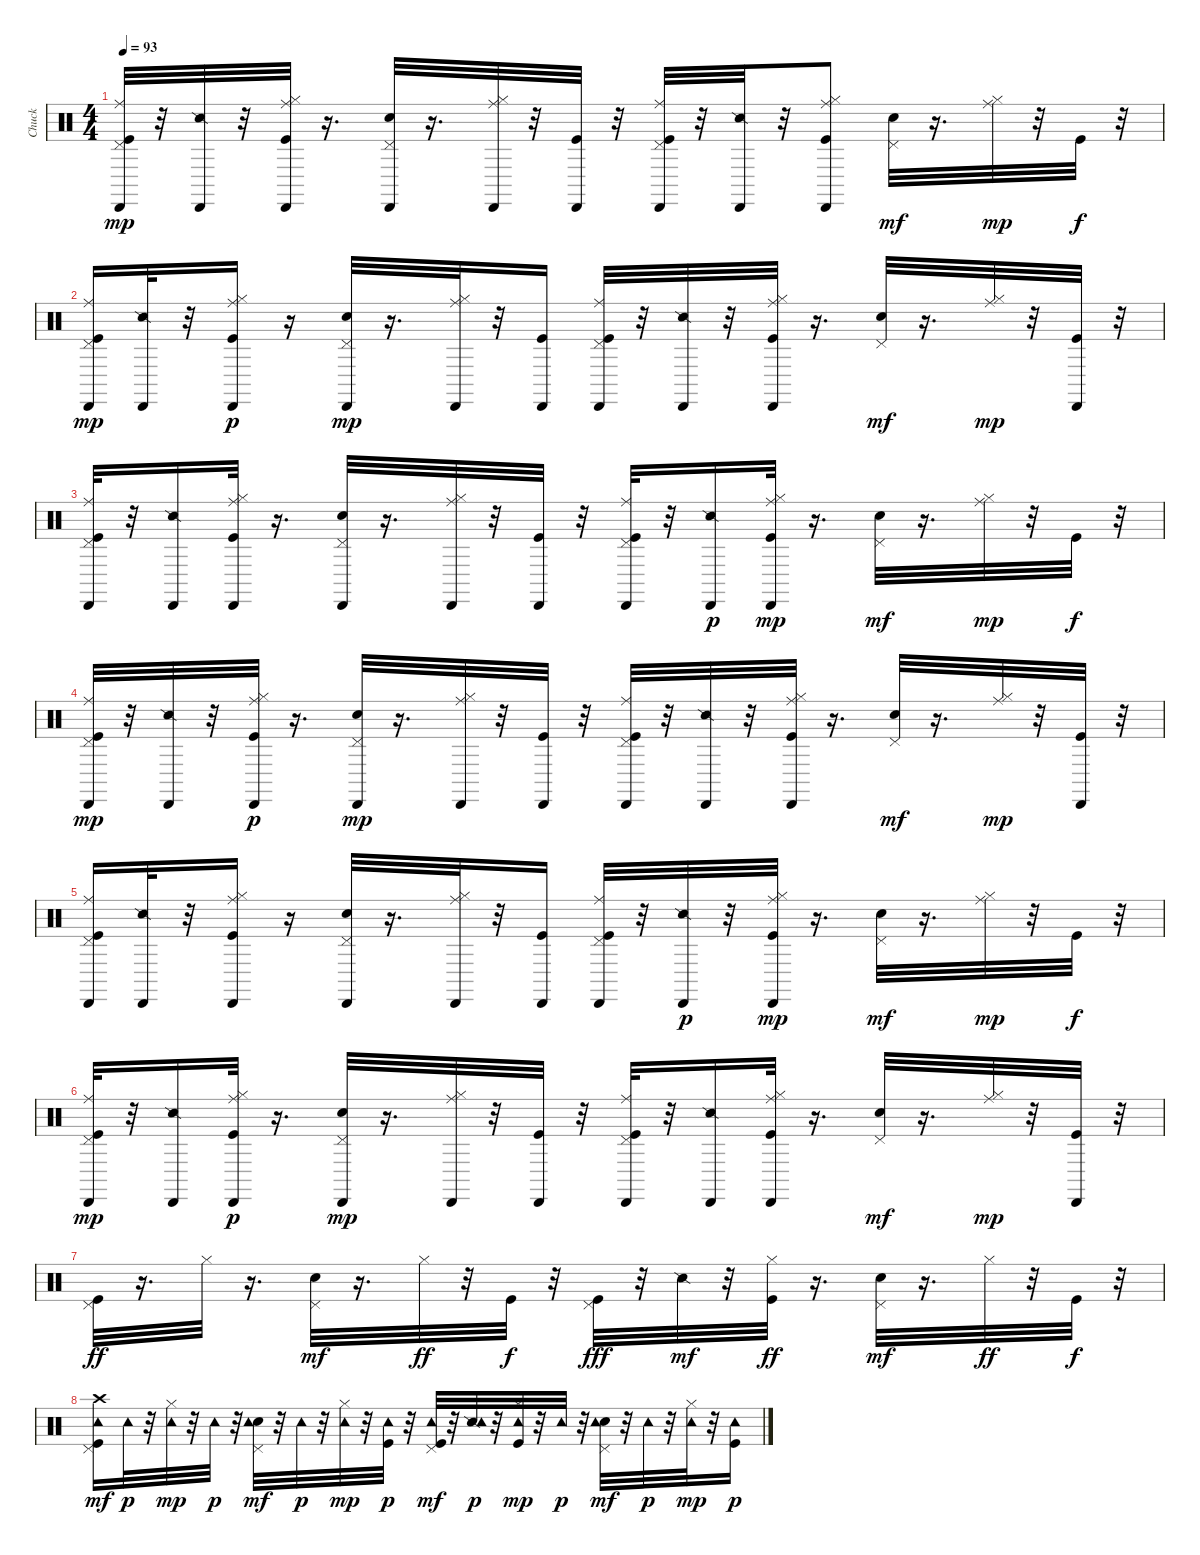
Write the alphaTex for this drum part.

\track ("Chuck" "Chuck") {instrument percussion}
\staff {score}
\articulation defaults
\ts (4 4)
\tempo 93
\clef neutral
\ks c
("Kick (hit)" "Pedal Hi-Hat (hit)" "Ride (middle)" "Cabasa (hit)").32{dy mp} r.32 ("Snare (side stick) 2" "Cabasa (hit)").32 r.32 ("Kick (hit)" "Hi-Hat (closed)" "Ride (middle)" "Cabasa (hit)").32 r.16{d} ("Electric Snare (hit)" "Pedal Hi-Hat (hit)" "Cabasa (hit)").32 r.16{d} ("Hi-Hat (closed)" "Ride (middle)" "Cabasa (hit)").32 r.32 ("Kick (hit)" "Cabasa (hit)").32 r.32 ("Kick (hit)" "Pedal Hi-Hat (hit)" "Ride (middle)" "Cabasa (hit)").32 r.32 ("Snare (side stick) 2" "Cabasa (hit)").32 r.32 ("Kick (hit)" "Hi-Hat (closed)" "Ride (middle)" "Cabasa (hit)").8 ("Electric Snare (hit)" "Pedal Hi-Hat (hit)").32{dy mf} r.16{d} ("Hi-Hat (closed)" "Ride (middle)").32{dy mp} r.32 "Kick (hit)".32{dy f} r.32 |
("Kick (hit)" "Pedal Hi-Hat (hit)" "Ride (middle)" "Cabasa (hit)").16{dy mp} ("Snare (side stick) 2" "Cabasa (hit)").32 r.32 ("Kick (hit)" "Hi-Hat (closed)" "Ride (middle)" "Cabasa (hit)").16{dy p} r.16 ("Electric Snare (hit)" "Pedal Hi-Hat (hit)" "Cabasa (hit)").32{dy mp} r.16{d} ("Hi-Hat (closed)" "Ride (middle)" "Cabasa (hit)").32 r.32 ("Kick (hit)" "Cabasa (hit)").16 ("Kick (hit)" "Pedal Hi-Hat (hit)" "Ride (middle)" "Cabasa (hit)").32 r.32 ("Snare (side stick) 2" "Cabasa (hit)").32 r.32 ("Kick (hit)" "Hi-Hat (closed)" "Ride (middle)" "Cabasa (hit)").32 r.16{d} ("Electric Snare (hit)" "Pedal Hi-Hat (hit)").32{dy mf} r.16{d} ("Hi-Hat (closed)" "Ride (middle)").32{dy mp} r.32 ("Kick (hit)" "Cabasa (hit)").32 r.32 |
("Kick (hit)" "Pedal Hi-Hat (hit)" "Ride (middle)" "Cabasa (hit)").32 r.32 ("Snare (side stick) 2" "Cabasa (hit)").16 ("Kick (hit)" "Hi-Hat (closed)" "Ride (middle)" "Cabasa (hit)").32 r.16{d} ("Electric Snare (hit)" "Pedal Hi-Hat (hit)" "Cabasa (hit)").32 r.16{d} ("Hi-Hat (closed)" "Ride (middle)" "Cabasa (hit)").32 r.32 ("Kick (hit)" "Cabasa (hit)").32 r.32 ("Kick (hit)" "Pedal Hi-Hat (hit)" "Ride (middle)" "Cabasa (hit)").32 r.32 ("Snare (side stick) 2" "Cabasa (hit)").16{dy p} ("Kick (hit)" "Hi-Hat (closed)" "Ride (middle)" "Cabasa (hit)").32{dy mp} r.16{d} ("Electric Snare (hit)" "Pedal Hi-Hat (hit)").32{dy mf} r.16{d} ("Hi-Hat (closed)" "Ride (middle)").32{dy mp} r.32 "Kick (hit)".32{dy f} r.32 |
("Kick (hit)" "Pedal Hi-Hat (hit)" "Ride (middle)" "Cabasa (hit)").32{dy mp} r.32 ("Snare (side stick) 2" "Cabasa (hit)").32 r.32 ("Kick (hit)" "Hi-Hat (closed)" "Ride (middle)" "Cabasa (hit)").32{dy p} r.16{d} ("Electric Snare (hit)" "Pedal Hi-Hat (hit)" "Cabasa (hit)").32{dy mp} r.16{d} ("Hi-Hat (closed)" "Ride (middle)" "Cabasa (hit)").32 r.32 ("Kick (hit)" "Cabasa (hit)").32 r.32 ("Kick (hit)" "Pedal Hi-Hat (hit)" "Ride (middle)" "Cabasa (hit)").32 r.32 ("Snare (side stick) 2" "Cabasa (hit)").32 r.32 ("Kick (hit)" "Hi-Hat (closed)" "Ride (middle)" "Cabasa (hit)").32 r.16{d} ("Electric Snare (hit)" "Pedal Hi-Hat (hit)").32{dy mf} r.16{d} ("Hi-Hat (closed)" "Ride (middle)").32{dy mp} r.32 ("Kick (hit)" "Cabasa (hit)").32 r.32 |
("Kick (hit)" "Pedal Hi-Hat (hit)" "Ride (middle)" "Cabasa (hit)").16 ("Snare (side stick) 2" "Cabasa (hit)").32 r.32 ("Kick (hit)" "Hi-Hat (closed)" "Ride (middle)" "Cabasa (hit)").16 r.16 ("Electric Snare (hit)" "Pedal Hi-Hat (hit)" "Cabasa (hit)").32 r.16{d} ("Hi-Hat (closed)" "Ride (middle)" "Cabasa (hit)").32 r.32 ("Kick (hit)" "Cabasa (hit)").16 ("Kick (hit)" "Pedal Hi-Hat (hit)" "Ride (middle)" "Cabasa (hit)").32 r.32 ("Snare (side stick) 2" "Cabasa (hit)").32{dy p} r.32 ("Kick (hit)" "Hi-Hat (closed)" "Ride (middle)" "Cabasa (hit)").32{dy mp} r.16{d} ("Electric Snare (hit)" "Pedal Hi-Hat (hit)").32{dy mf} r.16{d} ("Hi-Hat (closed)" "Ride (middle)").32{dy mp} r.32 "Kick (hit)".32{dy f} r.32 |
("Kick (hit)" "Pedal Hi-Hat (hit)" "Ride (middle)" "Cabasa (hit)").32{dy mp} r.32 ("Snare (side stick) 2" "Cabasa (hit)").16 ("Kick (hit)" "Hi-Hat (closed)" "Ride (middle)" "Cabasa (hit)").32{dy p} r.16{d} ("Electric Snare (hit)" "Pedal Hi-Hat (hit)" "Cabasa (hit)").32{dy mp} r.16{d} ("Hi-Hat (closed)" "Ride (middle)" "Cabasa (hit)").32 r.32 ("Kick (hit)" "Cabasa (hit)").32 r.32 ("Kick (hit)" "Pedal Hi-Hat (hit)" "Ride (middle)" "Cabasa (hit)").32 r.32 ("Snare (side stick) 2" "Cabasa (hit)").16 ("Kick (hit)" "Hi-Hat (closed)" "Ride (middle)" "Cabasa (hit)").32 r.16{d} ("Electric Snare (hit)" "Pedal Hi-Hat (hit)").32{dy mf} r.16{d} ("Hi-Hat (closed)" "Ride (middle)").32{dy mp} r.32 ("Kick (hit)" "Cabasa (hit)").32 r.32 |
("Kick (hit)" "Pedal Hi-Hat (hit)").32{dy ff} r.16{d} "Hi-Hat (closed)".32 r.16{d} ("Electric Snare (hit)" "Pedal Hi-Hat (hit)").32{dy mf} r.16{d} "Hi-Hat (closed)".32{dy ff} r.32 "Kick (hit)".32{dy f} r.32 ("Kick (hit)" "Pedal Hi-Hat (hit)").32{dy fff} r.32 "Snare (side stick) 2".32{dy mf} r.32 ("Kick (hit)" "Hi-Hat (closed)").32{dy ff} r.16{d} ("Electric Snare (hit)" "Pedal Hi-Hat (hit)").32{dy mf} r.16{d} "Hi-Hat (closed)".32{dy ff} r.32 "Kick (hit)".32{dy f} r.32 |
("Kick (hit)" "Pedal Hi-Hat (hit)" "Crash high (hit)" "Tambourine (hit)").16{dy mf} "Tambourine (hit)".32{dy p} r.32 ("Hi-Hat (closed)" "Tambourine (hit)").32{dy mp} r.32 "Tambourine (hit)".32{dy p} r.32 ("Electric Snare (hit)" "Pedal Hi-Hat (hit)" "Tambourine (hit)").32{dy mf} r.32 "Tambourine (hit)".32{dy p} r.32 ("Hi-Hat (closed)" "Tambourine (hit)").32{dy mp} r.32 ("Kick (hit)" "Tambourine (hit)").32{dy p} r.32 ("Kick (hit)" "Pedal Hi-Hat (hit)" "Tambourine (hit)").32{dy mf} r.32 ("Snare (side stick) 2" "Tambourine (hit)").32{dy p} r.32 ("Kick (hit)" "Hi-Hat (closed)" "Tambourine (hit)").32{dy mp} r.32 "Tambourine (hit)".32{dy p} r.32 ("Electric Snare (hit)" "Pedal Hi-Hat (hit)" "Tambourine (hit)").32{dy mf} r.32 "Tambourine (hit)".32{dy p} r.32 ("Hi-Hat (closed)" "Tambourine (hit)").32{dy mp} r.32 ("Kick (hit)" "Tambourine (hit)").16{dy p}
